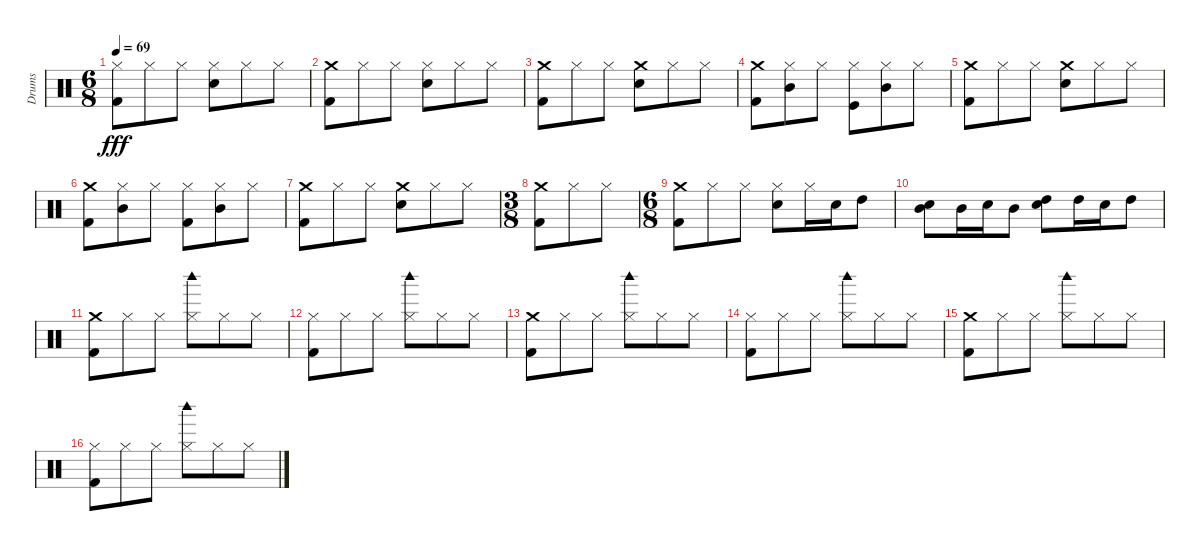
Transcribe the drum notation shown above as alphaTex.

\track ("Drums" "Drums") {instrument percussion}
\staff {score}
\articulation defaults
\ts (6 8)
\tempo 69
\clef neutral
\ks c
("Kick (hit) 2" "Hi-Hat (closed)").8{dy fff} "Hi-Hat (closed)".8 "Hi-Hat (closed)".8 ("Snare (hit) 2" "Hi-Hat (closed)").8 "Hi-Hat (closed)".8 "Hi-Hat (closed)".8 |
("Kick (hit) 2" "Crash medium (hit)").8 "Hi-Hat (closed)".8 "Hi-Hat (closed)".8 ("Snare (hit) 2" "Hi-Hat (closed)").8 "Hi-Hat (closed)".8 "Hi-Hat (closed)".8 |
("Kick (hit) 2" "Crash medium (hit)").8 "Hi-Hat (closed)".8 "Hi-Hat (closed)".8 ("Snare (hit) 2" "Crash medium (hit)").8 "Hi-Hat (closed)".8 "Hi-Hat (closed)".8 |
("Kick (hit) 2" "Crash medium (hit)").8 ("Mid Tom (hit)" "Hi-Hat (closed)").8 "Hi-Hat (closed)".8 ("Kick (hit)" "Hi-Hat (closed)").8 ("Mid Tom (hit)" "Hi-Hat (closed)").8 "Hi-Hat (closed)".8 |
("Kick (hit) 2" "Crash medium (hit)").8 "Hi-Hat (closed)".8 "Hi-Hat (closed)".8 ("Snare (hit) 2" "Crash medium (hit)").8 "Hi-Hat (closed)".8 "Hi-Hat (closed)".8 |
("Kick (hit) 2" "Crash medium (hit)").8 ("Mid Tom (hit)" "Hi-Hat (closed)").8 "Hi-Hat (closed)".8 ("Kick (hit) 2" "Hi-Hat (closed)").8 ("Mid Tom (hit)" "Hi-Hat (closed)").8 "Hi-Hat (closed)".8 |
("Kick (hit) 2" "Crash medium (hit)").8 "Hi-Hat (closed)".8 "Hi-Hat (closed)".8 ("Snare (hit) 2" "Crash medium (hit)").8 "Hi-Hat (closed)".8 "Hi-Hat (closed)".8 |
\ts (3 8)
("Kick (hit) 2" "Crash medium (hit)").8 "Hi-Hat (closed)".8 "Hi-Hat (closed)".8 |
\ts (6 8)
("Kick (hit) 2" "Crash medium (hit)").8 "Hi-Hat (closed)".8 "Hi-Hat (closed)".8 ("Snare (hit) 2" "Hi-Hat (closed)").8 "Hi-Hat (closed)".16 "Snare (hit) 2".16 "High Tom (hit)".8 |
("Mid Tom (hit)" "Snare (hit) 2").8 "Mid Tom (hit)".16 "Snare (hit) 2".16 "Mid Tom (hit)".8 ("High Tom (hit)" "Snare (hit) 2").8 "High Tom (hit)".16 "Snare (hit) 2".16 "High Tom (hit)".8 |
("Kick (hit) 2" "Crash medium (hit)").8 "Hi-Hat (closed)".8 "Hi-Hat (closed)".8 ("Woodblock high (hit)" "Hi-Hat (closed)").8 "Hi-Hat (closed)".8 "Hi-Hat (closed)".8 |
("Kick (hit) 2" "Hi-Hat (closed)").8 "Hi-Hat (closed)".8 "Hi-Hat (closed)".8 ("Woodblock high (hit)" "Hi-Hat (closed)").8 "Hi-Hat (closed)".8 "Hi-Hat (closed)".8 |
("Kick (hit) 2" "Crash medium (hit)").8 "Hi-Hat (closed)".8 "Hi-Hat (closed)".8 ("Woodblock high (hit)" "Hi-Hat (closed)").8 "Hi-Hat (closed)".8 "Hi-Hat (closed)".8 |
("Kick (hit) 2" "Hi-Hat (closed)").8 "Hi-Hat (closed)".8 "Hi-Hat (closed)".8 ("Woodblock high (hit)" "Hi-Hat (closed)").8 "Hi-Hat (closed)".8 "Hi-Hat (closed)".8 |
("Kick (hit) 2" "Crash medium (hit)").8 "Hi-Hat (closed)".8 "Hi-Hat (closed)".8 ("Woodblock high (hit)" "Hi-Hat (closed)").8 "Hi-Hat (closed)".8 "Hi-Hat (closed)".8 |
("Kick (hit) 2" "Hi-Hat (closed)").8 "Hi-Hat (closed)".8 "Hi-Hat (closed)".8 ("Woodblock high (hit)" "Hi-Hat (closed)").8 "Hi-Hat (closed)".8 "Hi-Hat (closed)".8
